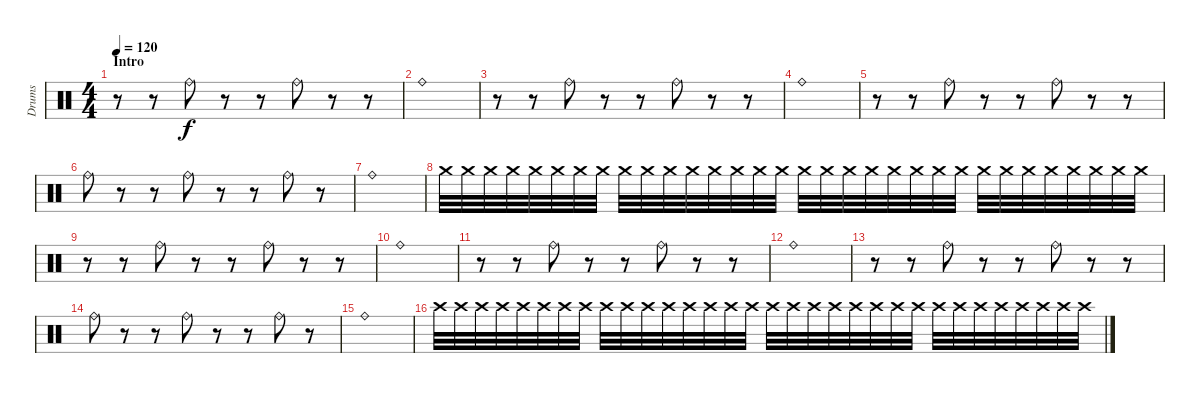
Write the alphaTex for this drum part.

\track ("Drums" "Drums") {instrument percussion}
\staff {score}
\articulation defaults
\ts (4 4)
\section ("" "Intro")
\tempo 120
\clef neutral
\ks c
r.8{dy f} r.8 "Ride (bell)".8{balance 16} r.8 r.8 "Ride (bell)".8{balance 8} r.8 r.8 |
"Ride (bell)".1{balance 0} |
r.8 r.8 "Ride (bell)".8{balance 16} r.8 r.8 "Ride (bell)".8{balance 8} r.8 r.8 |
"Ride (bell)".1{balance 0} |
r.8 r.8 "Ride (bell)".8{balance 12} r.8 r.8 "Ride (bell)".8{balance 16} r.8 r.8 |
"Ride (bell)".8{balance 12} r.8 r.8 "Ride (bell)".8{balance 8} r.8 r.8 "Ride (bell)".8{balance 4} r.8 |
"Ride (bell)".1{volume 0 balance 0} |
"Crash medium (hit)".32{volume 4 balance 8} "Crash medium (hit)".32 "Crash medium (hit)".32 "Crash medium (hit)".32 "Crash medium (hit)".32 "Crash medium (hit)".32 "Crash medium (hit)".32 "Crash medium (hit)".32 "Crash medium (hit)".32 "Crash medium (hit)".32 "Crash medium (hit)".32 "Crash medium (hit)".32 "Crash medium (hit)".32 "Crash medium (hit)".32 "Crash medium (hit)".32 "Crash medium (hit)".32 "Crash medium (hit)".32 "Crash medium (hit)".32 "Crash medium (hit)".32 "Crash medium (hit)".32 "Crash medium (hit)".32 "Crash medium (hit)".32 "Crash medium (hit)".32 "Crash medium (hit)".32 "Crash medium (hit)".32 "Crash medium (hit)".32 "Crash medium (hit)".32 "Crash medium (hit)".32 "Crash medium (hit)".32 "Crash medium (hit)".32 "Crash medium (hit)".32 "Crash medium (hit)".32 |
r.8 r.8 "Ride (bell)".8{volume 10 balance 16} r.8 r.8 "Ride (bell)".8{balance 8} r.8 r.8 |
"Ride (bell)".1{balance 0} |
r.8 r.8 "Ride (bell)".8{balance 16} r.8 r.8 "Ride (bell)".8{balance 8} r.8 r.8 |
"Ride (bell)".1{balance 0} |
r.8 r.8 "Ride (bell)".8{balance 12} r.8 r.8 "Ride (bell)".8{balance 16} r.8 r.8 |
"Ride (bell)".8{balance 12} r.8 r.8 "Ride (bell)".8{balance 8} r.8 r.8 "Ride (bell)".8{balance 4} r.8 |
"Ride (bell)".1{volume 0 balance 0} |
"Crash high (hit)".32{volume 4 balance 8} "Crash high (hit)".32 "Crash high (hit)".32 "Crash high (hit)".32 "Crash high (hit)".32 "Crash high (hit)".32 "Crash high (hit)".32 "Crash high (hit)".32 "Crash high (hit)".32 "Crash high (hit)".32 "Crash high (hit)".32 "Crash high (hit)".32 "Crash high (hit)".32 "Crash high (hit)".32 "Crash high (hit)".32 "Crash high (hit)".32 "Crash high (hit)".32 "Crash high (hit)".32 "Crash high (hit)".32 "Crash high (hit)".32 "Crash high (hit)".32 "Crash high (hit)".32 "Crash high (hit)".32 "Crash high (hit)".32 "Crash high (hit)".32 "Crash high (hit)".32 "Crash high (hit)".32 "Crash high (hit)".32 "Crash high (hit)".32 "Crash high (hit)".32 "Crash high (hit)".32 "Crash high (hit)".32
